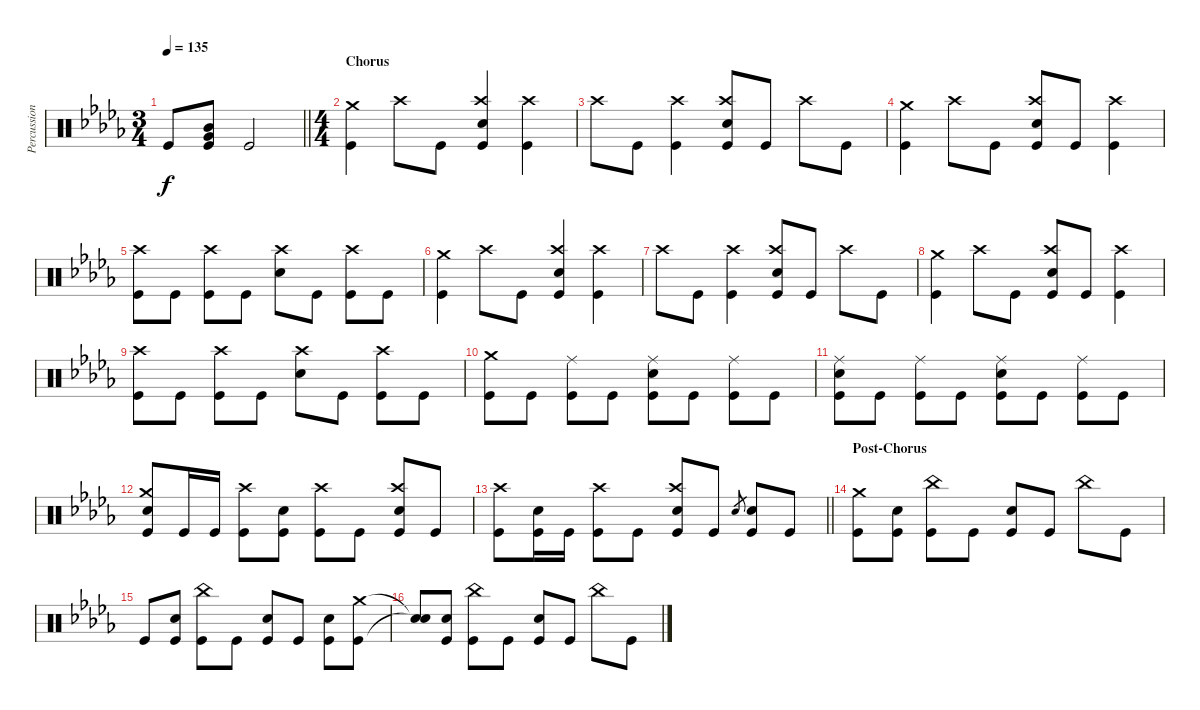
\track ("Percussion" "Percussion") {instrument percussion}
\staff {score}
\articulation defaults
\ts (3 4)
\tempo 135
\clef neutral
\barLineRight lightlight
\ks db "Kick (hit)".8{dy f}
("Mid Tom (hit)" "Very Low Tom (hit)" "Kick (hit)").8 "Kick (hit)".2 |
\ts (4 4)
\section ("" "Chorus")
("Crash medium (hit)" "Kick (hit)").4 "Crash high (hit)".8 "Kick (hit)".8 ("Crash high (hit)" "Electric Snare (hit)" "Kick (hit)").4 ("Crash high (hit)" "Kick (hit)").4 |
"Crash high (hit)".8 "Kick (hit)".8 ("Crash high (hit)" "Kick (hit)").4 ("Crash high (hit)" "Electric Snare (hit)" "Kick (hit)").8 "Kick (hit)".8 "Crash high (hit)".8 "Kick (hit)".8 |
("Crash medium (hit)" "Kick (hit)").4 "Crash high (hit)".8 "Kick (hit)".8 ("Crash high (hit)" "Electric Snare (hit)" "Kick (hit)").8 "Kick (hit)".8 ("Crash high (hit)" "Kick (hit)").4 |
("Crash high (hit)" "Kick (hit)").8 "Kick (hit)".8 ("Crash high (hit)" "Kick (hit)").8 "Kick (hit)".8 ("Crash high (hit)" "Electric Snare (hit)").8 "Kick (hit)".8 ("Crash high (hit)" "Kick (hit)").8 "Kick (hit)".8 |
("Crash medium (hit)" "Kick (hit)").4 "Crash high (hit)".8 "Kick (hit)".8 ("Crash high (hit)" "Electric Snare (hit)" "Kick (hit)").4 ("Crash high (hit)" "Kick (hit)").4 |
"Crash high (hit)".8 "Kick (hit)".8 ("Crash high (hit)" "Kick (hit)").4 ("Crash high (hit)" "Electric Snare (hit)" "Kick (hit)").8 "Kick (hit)".8 "Crash high (hit)".8 "Kick (hit)".8 |
("Crash medium (hit)" "Kick (hit)").4 "Crash high (hit)".8 "Kick (hit)".8 ("Crash high (hit)" "Electric Snare (hit)" "Kick (hit)").8 "Kick (hit)".8 ("Crash high (hit)" "Kick (hit)").4 |
("Crash high (hit)" "Kick (hit)").8 "Kick (hit)".8 ("Crash high (hit)" "Kick (hit)").8 "Kick (hit)".8 ("Crash high (hit)" "Electric Snare (hit)").8 "Kick (hit)".8 ("Crash high (hit)" "Kick (hit)").8 "Kick (hit)".8 |
("Crash medium (hit)" "Kick (hit)").8 "Kick (hit)".8 ("Ride (middle)" "Kick (hit)").8 "Kick (hit)".8 ("Ride (middle)" "Electric Snare (hit)" "Kick (hit)").8 "Kick (hit)".8 ("Ride (middle)" "Kick (hit)").8 "Kick (hit)".8 |
("Ride (middle)" "Electric Snare (hit)" "Kick (hit)").8 "Kick (hit)".8 ("Ride (middle)" "Kick (hit)").8 "Kick (hit)".8 ("Ride (middle)" "Electric Snare (hit)" "Kick (hit)").8 "Kick (hit)".8 ("Ride (middle)" "Kick (hit)").8 "Kick (hit)".8 |
("Crash medium (hit)" "Electric Snare (hit)" "Kick (hit)").8 "Kick (hit)".16 "Kick (hit)".16 ("Crash high (hit)" "Kick (hit)").8 ("Electric Snare (hit)" "Kick (hit)").8 ("Crash high (hit)" "Kick (hit)").8 "Kick (hit)".8 ("Crash high (hit)" "Electric Snare (hit)" "Kick (hit)").8 "Kick (hit)".8 |
\barLineRight lightlight
("Crash high (hit)" "Kick (hit)").8 ("Electric Snare (hit)" "Kick (hit)").16 "Kick (hit)".16 ("Crash high (hit)" "Kick (hit)").8 "Kick (hit)".8 ("Crash high (hit)" "Electric Snare (hit)" "Kick (hit)").8 "Kick (hit)".8 "Electric Snare (hit)".8{gr} ("Electric Snare (hit)" "Kick (hit)").8 "Kick (hit)".8 |
\section ("" "Post-Chorus")
("Crash medium (hit)" "Kick (hit)").8 ("Electric Snare (hit)" "Kick (hit)").8 ("China (hit)" "Kick (hit)").8 "Kick (hit)".8 ("Electric Snare (hit)" "Kick (hit)").8 "Kick (hit)".8 "China (hit)".8 "Kick (hit)".8 |
"Kick (hit)".8 ("Electric Snare (hit)" "Kick (hit)").8 ("China (hit)" "Kick (hit)").8 "Kick (hit)".8 ("Electric Snare (hit)" "Kick (hit)").8 "Kick (hit)".8 ("Electric Snare (hit)" "Kick (hit)").8 ("Crash medium (hit)" "Kick (hit)").8 |
("Snare (hit)"{t} "Snare (hit)"{t}).8 ("Electric Snare (hit)" "Kick (hit)").8 ("China (hit)" "Kick (hit)").8 "Kick (hit)".8 ("Electric Snare (hit)" "Kick (hit)").8 "Kick (hit)".8 "China (hit)".8 "Kick (hit)".8
